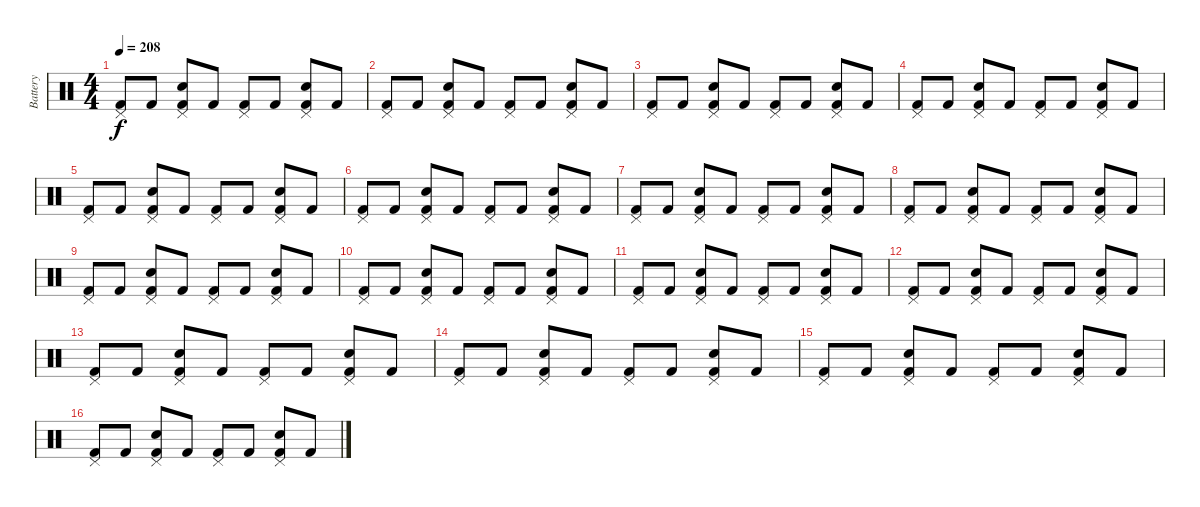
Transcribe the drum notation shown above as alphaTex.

\track ("Battery" "Battery") {instrument percussion}
\staff {score}
\articulation defaults
\ts (4 4)
\tempo 208
\clef neutral
\ks c
("Pedal Hi-Hat (hit)" "Kick (hit) 2").8{dy f} "Kick (hit) 2".8 ("Pedal Hi-Hat (hit)" "Electric Snare (hit)" "Kick (hit) 2").8 "Kick (hit) 2".8 ("Pedal Hi-Hat (hit)" "Kick (hit) 2").8 "Kick (hit) 2".8 ("Pedal Hi-Hat (hit)" "Electric Snare (hit)" "Kick (hit) 2").8 "Kick (hit) 2".8 |
("Pedal Hi-Hat (hit)" "Kick (hit) 2").8 "Kick (hit) 2".8 ("Pedal Hi-Hat (hit)" "Electric Snare (hit)" "Kick (hit) 2").8 "Kick (hit) 2".8 ("Pedal Hi-Hat (hit)" "Kick (hit) 2").8 "Kick (hit) 2".8 ("Pedal Hi-Hat (hit)" "Electric Snare (hit)" "Kick (hit) 2").8 "Kick (hit) 2".8 |
("Pedal Hi-Hat (hit)" "Kick (hit) 2").8 "Kick (hit) 2".8 ("Pedal Hi-Hat (hit)" "Electric Snare (hit)" "Kick (hit) 2").8 "Kick (hit) 2".8 ("Pedal Hi-Hat (hit)" "Kick (hit) 2").8 "Kick (hit) 2".8 ("Pedal Hi-Hat (hit)" "Electric Snare (hit)" "Kick (hit) 2").8 "Kick (hit) 2".8 |
("Pedal Hi-Hat (hit)" "Kick (hit) 2").8 "Kick (hit) 2".8 ("Pedal Hi-Hat (hit)" "Electric Snare (hit)" "Kick (hit) 2").8 "Kick (hit) 2".8 ("Pedal Hi-Hat (hit)" "Kick (hit) 2").8 "Kick (hit) 2".8 ("Pedal Hi-Hat (hit)" "Electric Snare (hit)" "Kick (hit) 2").8 "Kick (hit) 2".8 |
("Pedal Hi-Hat (hit)" "Kick (hit) 2").8 "Kick (hit) 2".8 ("Pedal Hi-Hat (hit)" "Electric Snare (hit)" "Kick (hit) 2").8 "Kick (hit) 2".8 ("Pedal Hi-Hat (hit)" "Kick (hit) 2").8 "Kick (hit) 2".8 ("Pedal Hi-Hat (hit)" "Electric Snare (hit)" "Kick (hit) 2").8 "Kick (hit) 2".8 |
("Pedal Hi-Hat (hit)" "Kick (hit) 2").8 "Kick (hit) 2".8 ("Pedal Hi-Hat (hit)" "Electric Snare (hit)" "Kick (hit) 2").8 "Kick (hit) 2".8 ("Pedal Hi-Hat (hit)" "Kick (hit) 2").8 "Kick (hit) 2".8 ("Pedal Hi-Hat (hit)" "Electric Snare (hit)" "Kick (hit) 2").8 "Kick (hit) 2".8 |
("Pedal Hi-Hat (hit)" "Kick (hit) 2").8 "Kick (hit) 2".8 ("Pedal Hi-Hat (hit)" "Electric Snare (hit)" "Kick (hit) 2").8 "Kick (hit) 2".8 ("Pedal Hi-Hat (hit)" "Kick (hit) 2").8 "Kick (hit) 2".8 ("Pedal Hi-Hat (hit)" "Electric Snare (hit)" "Kick (hit) 2").8 "Kick (hit) 2".8 |
("Pedal Hi-Hat (hit)" "Kick (hit) 2").8 "Kick (hit) 2".8 ("Pedal Hi-Hat (hit)" "Electric Snare (hit)" "Kick (hit) 2").8 "Kick (hit) 2".8 ("Pedal Hi-Hat (hit)" "Kick (hit) 2").8 "Kick (hit) 2".8 ("Pedal Hi-Hat (hit)" "Electric Snare (hit)" "Kick (hit) 2").8 "Kick (hit) 2".8 |
("Pedal Hi-Hat (hit)" "Kick (hit) 2").8 "Kick (hit) 2".8 ("Pedal Hi-Hat (hit)" "Electric Snare (hit)" "Kick (hit) 2").8 "Kick (hit) 2".8 ("Pedal Hi-Hat (hit)" "Kick (hit) 2").8 "Kick (hit) 2".8 ("Pedal Hi-Hat (hit)" "Electric Snare (hit)" "Kick (hit) 2").8 "Kick (hit) 2".8 |
("Pedal Hi-Hat (hit)" "Kick (hit) 2").8 "Kick (hit) 2".8 ("Pedal Hi-Hat (hit)" "Electric Snare (hit)" "Kick (hit) 2").8 "Kick (hit) 2".8 ("Pedal Hi-Hat (hit)" "Kick (hit) 2").8 "Kick (hit) 2".8 ("Pedal Hi-Hat (hit)" "Electric Snare (hit)" "Kick (hit) 2").8 "Kick (hit) 2".8 |
("Pedal Hi-Hat (hit)" "Kick (hit) 2").8 "Kick (hit) 2".8 ("Pedal Hi-Hat (hit)" "Electric Snare (hit)" "Kick (hit) 2").8 "Kick (hit) 2".8 ("Pedal Hi-Hat (hit)" "Kick (hit) 2").8 "Kick (hit) 2".8 ("Pedal Hi-Hat (hit)" "Electric Snare (hit)" "Kick (hit) 2").8 "Kick (hit) 2".8 |
("Pedal Hi-Hat (hit)" "Kick (hit) 2").8 "Kick (hit) 2".8 ("Pedal Hi-Hat (hit)" "Electric Snare (hit)" "Kick (hit) 2").8 "Kick (hit) 2".8 ("Pedal Hi-Hat (hit)" "Kick (hit) 2").8 "Kick (hit) 2".8 ("Pedal Hi-Hat (hit)" "Electric Snare (hit)" "Kick (hit) 2").8 "Kick (hit) 2".8 |
("Pedal Hi-Hat (hit)" "Kick (hit) 2").8 "Kick (hit) 2".8 ("Pedal Hi-Hat (hit)" "Electric Snare (hit)" "Kick (hit) 2").8 "Kick (hit) 2".8 ("Pedal Hi-Hat (hit)" "Kick (hit) 2").8 "Kick (hit) 2".8 ("Pedal Hi-Hat (hit)" "Electric Snare (hit)" "Kick (hit) 2").8 "Kick (hit) 2".8 |
("Pedal Hi-Hat (hit)" "Kick (hit) 2").8 "Kick (hit) 2".8 ("Pedal Hi-Hat (hit)" "Electric Snare (hit)" "Kick (hit) 2").8 "Kick (hit) 2".8 ("Pedal Hi-Hat (hit)" "Kick (hit) 2").8 "Kick (hit) 2".8 ("Pedal Hi-Hat (hit)" "Electric Snare (hit)" "Kick (hit) 2").8 "Kick (hit) 2".8 |
("Pedal Hi-Hat (hit)" "Kick (hit) 2").8 "Kick (hit) 2".8 ("Pedal Hi-Hat (hit)" "Electric Snare (hit)" "Kick (hit) 2").8 "Kick (hit) 2".8 ("Pedal Hi-Hat (hit)" "Kick (hit) 2").8 "Kick (hit) 2".8 ("Pedal Hi-Hat (hit)" "Electric Snare (hit)" "Kick (hit) 2").8 "Kick (hit) 2".8 |
("Pedal Hi-Hat (hit)" "Kick (hit) 2").8 "Kick (hit) 2".8 ("Pedal Hi-Hat (hit)" "Electric Snare (hit)" "Kick (hit) 2").8 "Kick (hit) 2".8 ("Pedal Hi-Hat (hit)" "Kick (hit) 2").8 "Kick (hit) 2".8 ("Pedal Hi-Hat (hit)" "Electric Snare (hit)" "Kick (hit) 2").8 "Kick (hit) 2".8
